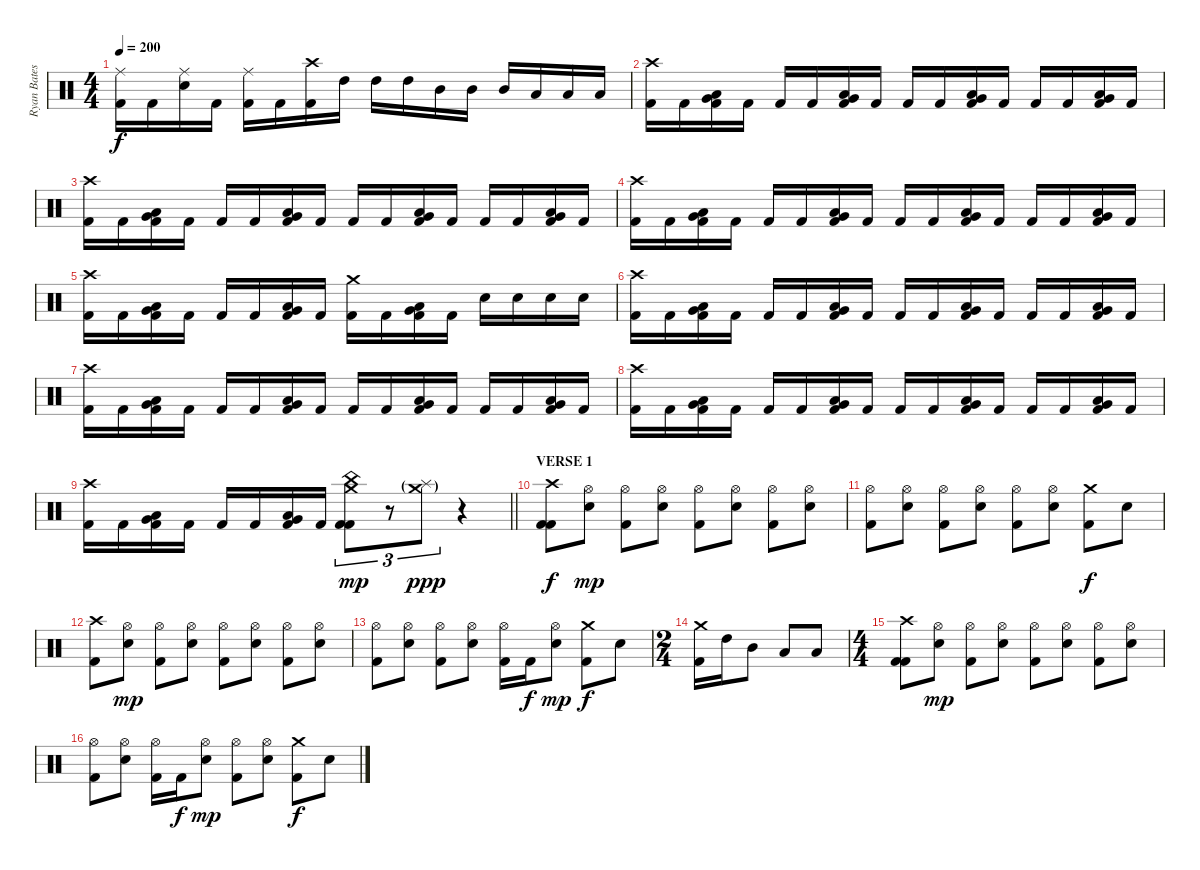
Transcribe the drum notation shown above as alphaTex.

\track ("Ryan Bates" "Ryan Bates") {instrument percussion}
\staff {score}
\articulation defaults
\ts (4 4)
\tempo 200
\clef neutral
\ks c
("Ride (middle)" "Kick (hit) 2").16{dy f} "Kick (hit) 2".16 ("Ride (middle)" "Electric Snare (hit)").16 "Kick (hit) 2".16 ("Ride (middle)" "Kick (hit) 2").16 "Kick (hit) 2".16 ("Crash high (hit)" "Kick (hit) 2").16 "High Tom (hit)".16 "High Tom (hit)".16 "High Tom (hit)".16 "Mid Tom (hit)".16 "Mid Tom (hit)".16 "Mid Tom (hit)".16 "Low Tom (hit)".16 "Low Tom (hit)".16 "Low Tom (hit)".16 |
("Crash high (hit)" "Kick (hit) 2").16 "Kick (hit) 2".16 ("Low Tom (hit)" "Very Low Tom (hit)" "Kick (hit) 2").16 "Kick (hit) 2".16 "Kick (hit) 2".16 "Kick (hit) 2".16 ("Low Tom (hit)" "Very Low Tom (hit)" "Kick (hit) 2").16 "Kick (hit) 2".16 "Kick (hit) 2".16 "Kick (hit) 2".16 ("Low Tom (hit)" "Very Low Tom (hit)" "Kick (hit) 2").16 "Kick (hit) 2".16 "Kick (hit) 2".16 "Kick (hit) 2".16 ("Low Tom (hit)" "Very Low Tom (hit)" "Kick (hit) 2").16 "Kick (hit) 2".16 |
("Crash high (hit)" "Kick (hit) 2").16 "Kick (hit) 2".16 ("Low Tom (hit)" "Very Low Tom (hit)" "Kick (hit) 2").16 "Kick (hit) 2".16 "Kick (hit) 2".16 "Kick (hit) 2".16 ("Low Tom (hit)" "Very Low Tom (hit)" "Kick (hit) 2").16 "Kick (hit) 2".16 "Kick (hit) 2".16 "Kick (hit) 2".16 ("Low Tom (hit)" "Very Low Tom (hit)" "Kick (hit) 2").16 "Kick (hit) 2".16 "Kick (hit) 2".16 "Kick (hit) 2".16 ("Low Tom (hit)" "Very Low Tom (hit)" "Kick (hit) 2").16 "Kick (hit) 2".16 |
("Crash high (hit)" "Kick (hit) 2").16 "Kick (hit) 2".16 ("Low Tom (hit)" "Very Low Tom (hit)" "Kick (hit) 2").16 "Kick (hit) 2".16 "Kick (hit) 2".16 "Kick (hit) 2".16 ("Low Tom (hit)" "Very Low Tom (hit)" "Kick (hit) 2").16 "Kick (hit) 2".16 "Kick (hit) 2".16 "Kick (hit) 2".16 ("Low Tom (hit)" "Very Low Tom (hit)" "Kick (hit) 2").16 "Kick (hit) 2".16 "Kick (hit) 2".16 "Kick (hit) 2".16 ("Low Tom (hit)" "Very Low Tom (hit)" "Kick (hit) 2").16 "Kick (hit) 2".16 |
("Crash high (hit)" "Kick (hit) 2").16 "Kick (hit) 2".16 ("Low Tom (hit)" "Very Low Tom (hit)" "Kick (hit) 2").16 "Kick (hit) 2".16 "Kick (hit) 2".16 "Kick (hit) 2".16 ("Low Tom (hit)" "Very Low Tom (hit)" "Kick (hit) 2").16 "Kick (hit) 2".16 ("Crash medium (hit)" "Kick (hit) 2").16 "Kick (hit) 2".16 ("Low Tom (hit)" "Very Low Tom (hit)" "Kick (hit) 2").16 "Kick (hit) 2".16 "Electric Snare (hit)".16 "Electric Snare (hit)".16 "Electric Snare (hit)".16 "Electric Snare (hit)".16 |
("Crash high (hit)" "Kick (hit) 2").16 "Kick (hit) 2".16 ("Low Tom (hit)" "Very Low Tom (hit)" "Kick (hit) 2").16 "Kick (hit) 2".16 "Kick (hit) 2".16 "Kick (hit) 2".16 ("Low Tom (hit)" "Very Low Tom (hit)" "Kick (hit) 2").16 "Kick (hit) 2".16 "Kick (hit) 2".16 "Kick (hit) 2".16 ("Low Tom (hit)" "Very Low Tom (hit)" "Kick (hit) 2").16 "Kick (hit) 2".16 "Kick (hit) 2".16 "Kick (hit) 2".16 ("Low Tom (hit)" "Very Low Tom (hit)" "Kick (hit) 2").16 "Kick (hit) 2".16 |
("Crash high (hit)" "Kick (hit) 2").16 "Kick (hit) 2".16 ("Low Tom (hit)" "Very Low Tom (hit)" "Kick (hit) 2").16 "Kick (hit) 2".16 "Kick (hit) 2".16 "Kick (hit) 2".16 ("Low Tom (hit)" "Very Low Tom (hit)" "Kick (hit) 2").16 "Kick (hit) 2".16 "Kick (hit) 2".16 "Kick (hit) 2".16 ("Low Tom (hit)" "Very Low Tom (hit)" "Kick (hit) 2").16 "Kick (hit) 2".16 "Kick (hit) 2".16 "Kick (hit) 2".16 ("Low Tom (hit)" "Very Low Tom (hit)" "Kick (hit) 2").16 "Kick (hit) 2".16 |
("Crash high (hit)" "Kick (hit) 2").16 "Kick (hit) 2".16 ("Low Tom (hit)" "Very Low Tom (hit)" "Kick (hit) 2").16 "Kick (hit) 2".16 "Kick (hit) 2".16 "Kick (hit) 2".16 ("Low Tom (hit)" "Very Low Tom (hit)" "Kick (hit) 2").16 "Kick (hit) 2".16 "Kick (hit) 2".16 "Kick (hit) 2".16 ("Low Tom (hit)" "Very Low Tom (hit)" "Kick (hit) 2").16 "Kick (hit) 2".16 "Kick (hit) 2".16 "Kick (hit) 2".16 ("Low Tom (hit)" "Very Low Tom (hit)" "Kick (hit) 2").16 "Kick (hit) 2".16 |
\barLineRight lightlight
("Crash high (hit)" "Kick (hit) 2").16 "Kick (hit) 2".16 ("Low Tom (hit)" "Very Low Tom (hit)" "Kick (hit) 2").16 "Kick (hit) 2".16 "Kick (hit) 2".16 "Kick (hit) 2".16 ("Low Tom (hit)" "Very Low Tom (hit)" "Kick (hit) 2").16 "Kick (hit) 2".16 ("Crash medium (hit)" "China (hit)" "Kick (hit) 2" "Kick (hit) 2").8{tu (3 2) dy mp} r.8{tu (3 2)} ("Crash medium (hit)"{g} "Splash (hit)"{g}).8{tu (3 2) dy ppp volume 0} r.4 |
\section ("" "VERSE 1")
("Crash high (hit)" "Kick (hit) 2" "Kick (hit) 2").8{dy f volume 13} ("Hi-Hat (open)" "Electric Snare (hit)").8{dy mp} ("Hi-Hat (open)" "Kick (hit) 2").8 ("Hi-Hat (open)" "Electric Snare (hit)").8 ("Hi-Hat (open)" "Kick (hit) 2").8 ("Hi-Hat (open)" "Electric Snare (hit)").8 ("Hi-Hat (open)" "Kick (hit) 2").8 ("Hi-Hat (open)" "Electric Snare (hit)").8 |
("Hi-Hat (open)" "Kick (hit) 2").8 ("Hi-Hat (open)" "Electric Snare (hit)").8 ("Hi-Hat (open)" "Kick (hit) 2").8 ("Hi-Hat (open)" "Electric Snare (hit)").8 ("Hi-Hat (open)" "Kick (hit) 2").8 ("Hi-Hat (open)" "Electric Snare (hit)").8 ("Crash medium (hit)" "Kick (hit) 2").8{dy f} "Electric Snare (hit)".8 |
("Crash high (hit)" "Kick (hit) 2").8 ("Hi-Hat (open)" "Electric Snare (hit)").8{dy mp} ("Hi-Hat (open)" "Kick (hit) 2").8 ("Hi-Hat (open)" "Electric Snare (hit)").8 ("Hi-Hat (open)" "Kick (hit) 2").8 ("Hi-Hat (open)" "Electric Snare (hit)").8 ("Hi-Hat (open)" "Kick (hit) 2").8 ("Hi-Hat (open)" "Electric Snare (hit)").8 |
("Hi-Hat (open)" "Kick (hit) 2").8 ("Hi-Hat (open)" "Electric Snare (hit)").8 ("Hi-Hat (open)" "Kick (hit) 2").8 ("Hi-Hat (open)" "Electric Snare (hit)").8 ("Hi-Hat (open)" "Kick (hit) 2").16 "Kick (hit) 2".16{dy f} ("Hi-Hat (open)" "Electric Snare (hit)").8{dy mp} ("Crash medium (hit)" "Kick (hit) 2").8{dy f} "Electric Snare (hit)".8 |
\ts (2 4)
("Crash medium (hit)" "Kick (hit) 2").16 "High Tom (hit)".16 "Mid Tom (hit)".8 "Low Tom (hit)".8 "Low Tom (hit)".8 |
\ts (4 4)
("Crash high (hit)" "Kick (hit) 2" "Kick (hit) 2").8 ("Hi-Hat (open)" "Electric Snare (hit)").8{dy mp} ("Hi-Hat (open)" "Kick (hit) 2").8 ("Hi-Hat (open)" "Electric Snare (hit)").8 ("Hi-Hat (open)" "Kick (hit) 2").8 ("Hi-Hat (open)" "Electric Snare (hit)").8 ("Hi-Hat (open)" "Kick (hit) 2").8 ("Hi-Hat (open)" "Electric Snare (hit)").8 |
("Hi-Hat (open)" "Kick (hit) 2").8 ("Hi-Hat (open)" "Electric Snare (hit)").8 ("Hi-Hat (open)" "Kick (hit) 2").16 "Kick (hit) 2".16{dy f} ("Hi-Hat (open)" "Electric Snare (hit)").8{dy mp} ("Hi-Hat (open)" "Kick (hit) 2").8 ("Hi-Hat (open)" "Electric Snare (hit)").8 ("Crash medium (hit)" "Kick (hit) 2").8{dy f} "Electric Snare (hit)".8
